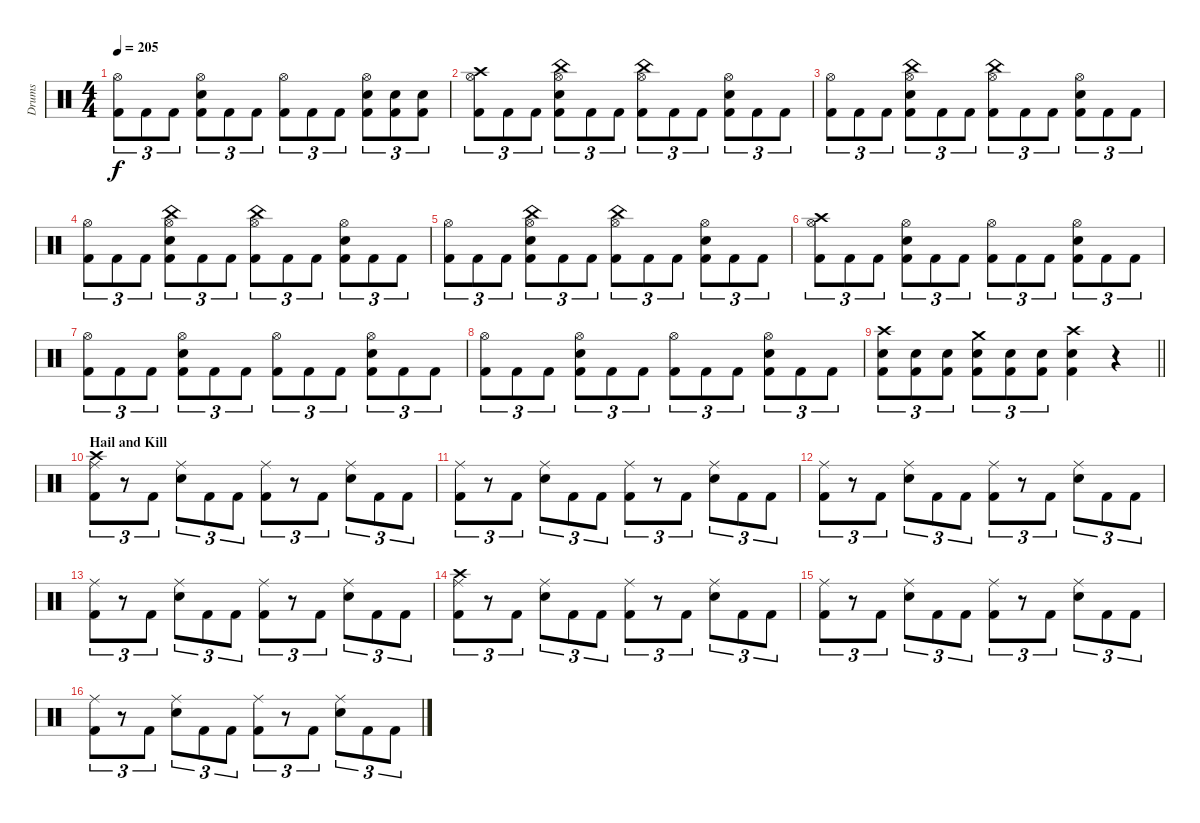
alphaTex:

\track ("Drums" "Drums") {instrument percussion}
\staff {score}
\articulation defaults
\ts (4 4)
\tempo 205
\clef neutral
\ks c
("Hi-Hat (open)" "Kick (hit) 2").8{tu (3 2) dy f} "Kick (hit) 2".8{tu (3 2)} "Kick (hit) 2".8{tu (3 2)} ("Hi-Hat (open)" "Snare (hit) 2" "Kick (hit) 2").8{tu (3 2)} "Kick (hit) 2".8{tu (3 2)} "Kick (hit) 2".8{tu (3 2)} ("Hi-Hat (open)" "Kick (hit) 2").8{tu (3 2)} "Kick (hit) 2".8{tu (3 2)} "Kick (hit) 2".8{tu (3 2)} ("Hi-Hat (open)" "Snare (hit) 2" "Kick (hit) 2").8{tu (3 2)} ("Snare (hit) 2" "Kick (hit) 2").8{tu (3 2)} ("Snare (hit) 2" "Kick (hit) 2").8{tu (3 2)} |
("Crash high (hit)" "Hi-Hat (open)" "Kick (hit) 2").8{tu (3 2)} "Kick (hit) 2".8{tu (3 2)} "Kick (hit) 2".8{tu (3 2)} ("China (hit)" "Hi-Hat (open)" "Snare (hit) 2" "Kick (hit) 2").8{tu (3 2)} "Kick (hit) 2".8{tu (3 2)} "Kick (hit) 2".8{tu (3 2)} ("China (hit)" "Hi-Hat (open)" "Kick (hit) 2").8{tu (3 2)} "Kick (hit) 2".8{tu (3 2)} "Kick (hit) 2".8{tu (3 2)} ("Hi-Hat (open)" "Snare (hit) 2" "Kick (hit) 2").8{tu (3 2)} "Kick (hit) 2".8{tu (3 2)} "Kick (hit) 2".8{tu (3 2)} |
("Hi-Hat (open)" "Kick (hit) 2").8{tu (3 2)} "Kick (hit) 2".8{tu (3 2)} "Kick (hit) 2".8{tu (3 2)} ("China (hit)" "Hi-Hat (open)" "Snare (hit) 2" "Kick (hit) 2").8{tu (3 2)} "Kick (hit) 2".8{tu (3 2)} "Kick (hit) 2".8{tu (3 2)} ("China (hit)" "Hi-Hat (open)" "Kick (hit) 2").8{tu (3 2)} "Kick (hit) 2".8{tu (3 2)} "Kick (hit) 2".8{tu (3 2)} ("Hi-Hat (open)" "Snare (hit) 2" "Kick (hit) 2").8{tu (3 2)} "Kick (hit) 2".8{tu (3 2)} "Kick (hit) 2".8{tu (3 2)} |
("Hi-Hat (open)" "Kick (hit) 2").8{tu (3 2)} "Kick (hit) 2".8{tu (3 2)} "Kick (hit) 2".8{tu (3 2)} ("China (hit)" "Hi-Hat (open)" "Snare (hit) 2" "Kick (hit) 2").8{tu (3 2)} "Kick (hit) 2".8{tu (3 2)} "Kick (hit) 2".8{tu (3 2)} ("China (hit)" "Hi-Hat (open)" "Kick (hit) 2").8{tu (3 2)} "Kick (hit) 2".8{tu (3 2)} "Kick (hit) 2".8{tu (3 2)} ("Hi-Hat (open)" "Snare (hit) 2" "Kick (hit) 2").8{tu (3 2)} "Kick (hit) 2".8{tu (3 2)} "Kick (hit) 2".8{tu (3 2)} |
("Hi-Hat (open)" "Kick (hit) 2").8{tu (3 2)} "Kick (hit) 2".8{tu (3 2)} "Kick (hit) 2".8{tu (3 2)} ("China (hit)" "Hi-Hat (open)" "Snare (hit) 2" "Kick (hit) 2").8{tu (3 2)} "Kick (hit) 2".8{tu (3 2)} "Kick (hit) 2".8{tu (3 2)} ("China (hit)" "Hi-Hat (open)" "Kick (hit) 2").8{tu (3 2)} "Kick (hit) 2".8{tu (3 2)} "Kick (hit) 2".8{tu (3 2)} ("Hi-Hat (open)" "Snare (hit) 2" "Kick (hit) 2").8{tu (3 2)} "Kick (hit) 2".8{tu (3 2)} "Kick (hit) 2".8{tu (3 2)} |
("Crash high (hit)" "Hi-Hat (open)" "Kick (hit) 2").8{tu (3 2)} "Kick (hit) 2".8{tu (3 2)} "Kick (hit) 2".8{tu (3 2)} ("Hi-Hat (open)" "Snare (hit) 2" "Kick (hit) 2").8{tu (3 2)} "Kick (hit) 2".8{tu (3 2)} "Kick (hit) 2".8{tu (3 2)} ("Hi-Hat (open)" "Kick (hit) 2").8{tu (3 2)} "Kick (hit) 2".8{tu (3 2)} "Kick (hit) 2".8{tu (3 2)} ("Hi-Hat (open)" "Snare (hit) 2" "Kick (hit) 2").8{tu (3 2)} "Kick (hit) 2".8{tu (3 2)} "Kick (hit) 2".8{tu (3 2)} |
("Hi-Hat (open)" "Kick (hit) 2").8{tu (3 2)} "Kick (hit) 2".8{tu (3 2)} "Kick (hit) 2".8{tu (3 2)} ("Hi-Hat (open)" "Snare (hit) 2" "Kick (hit) 2").8{tu (3 2)} "Kick (hit) 2".8{tu (3 2)} "Kick (hit) 2".8{tu (3 2)} ("Hi-Hat (open)" "Kick (hit) 2").8{tu (3 2)} "Kick (hit) 2".8{tu (3 2)} "Kick (hit) 2".8{tu (3 2)} ("Hi-Hat (open)" "Snare (hit) 2" "Kick (hit) 2").8{tu (3 2)} "Kick (hit) 2".8{tu (3 2)} "Kick (hit) 2".8{tu (3 2)} |
("Hi-Hat (open)" "Kick (hit) 2").8{tu (3 2)} "Kick (hit) 2".8{tu (3 2)} "Kick (hit) 2".8{tu (3 2)} ("Hi-Hat (open)" "Snare (hit) 2" "Kick (hit) 2").8{tu (3 2)} "Kick (hit) 2".8{tu (3 2)} "Kick (hit) 2".8{tu (3 2)} ("Hi-Hat (open)" "Kick (hit) 2").8{tu (3 2)} "Kick (hit) 2".8{tu (3 2)} "Kick (hit) 2".8{tu (3 2)} ("Hi-Hat (open)" "Snare (hit) 2" "Kick (hit) 2").8{tu (3 2)} "Kick (hit) 2".8{tu (3 2)} "Kick (hit) 2".8{tu (3 2)} |
\barLineRight lightlight
("Crash high (hit)" "Snare (hit) 2" "Kick (hit) 2").8{tu (3 2)} ("Snare (hit) 2" "Kick (hit) 2").8{tu (3 2)} ("Snare (hit) 2" "Kick (hit) 2").8{tu (3 2)} ("Crash medium (hit)" "Snare (hit) 2" "Kick (hit) 2").8{tu (3 2)} ("Snare (hit) 2" "Kick (hit) 2").8{tu (3 2)} ("Snare (hit) 2" "Kick (hit) 2").8{tu (3 2)} ("Crash high (hit)" "Snare (hit) 2" "Kick (hit) 2").4 r.4 |
\section ("" "Hail and Kill")
("Crash high (hit)" "Ride (middle)" "Kick (hit) 2").8{tu (3 2)} r.8{tu (3 2)} "Kick (hit) 2".8{tu (3 2)} ("Ride (middle)" "Snare (hit) 2").8{tu (3 2)} "Kick (hit) 2".8{tu (3 2)} "Kick (hit) 2".8{tu (3 2)} ("Ride (middle)" "Kick (hit) 2").8{tu (3 2)} r.8{tu (3 2)} "Kick (hit) 2".8{tu (3 2)} ("Ride (middle)" "Snare (hit) 2").8{tu (3 2)} "Kick (hit) 2".8{tu (3 2)} "Kick (hit) 2".8{tu (3 2)} |
("Ride (middle)" "Kick (hit) 2").8{tu (3 2)} r.8{tu (3 2)} "Kick (hit) 2".8{tu (3 2)} ("Ride (middle)" "Snare (hit) 2").8{tu (3 2)} "Kick (hit) 2".8{tu (3 2)} "Kick (hit) 2".8{tu (3 2)} ("Ride (middle)" "Kick (hit) 2").8{tu (3 2)} r.8{tu (3 2)} "Kick (hit) 2".8{tu (3 2)} ("Ride (middle)" "Snare (hit) 2").8{tu (3 2)} "Kick (hit) 2".8{tu (3 2)} "Kick (hit) 2".8{tu (3 2)} |
("Ride (middle)" "Kick (hit) 2").8{tu (3 2)} r.8{tu (3 2)} "Kick (hit) 2".8{tu (3 2)} ("Ride (middle)" "Snare (hit) 2").8{tu (3 2)} "Kick (hit) 2".8{tu (3 2)} "Kick (hit) 2".8{tu (3 2)} ("Ride (middle)" "Kick (hit) 2").8{tu (3 2)} r.8{tu (3 2)} "Kick (hit) 2".8{tu (3 2)} ("Ride (middle)" "Snare (hit) 2").8{tu (3 2)} "Kick (hit) 2".8{tu (3 2)} "Kick (hit) 2".8{tu (3 2)} |
("Ride (middle)" "Kick (hit) 2").8{tu (3 2)} r.8{tu (3 2)} "Kick (hit) 2".8{tu (3 2)} ("Ride (middle)" "Snare (hit) 2").8{tu (3 2)} "Kick (hit) 2".8{tu (3 2)} "Kick (hit) 2".8{tu (3 2)} ("Ride (middle)" "Kick (hit) 2").8{tu (3 2)} r.8{tu (3 2)} "Kick (hit) 2".8{tu (3 2)} ("Ride (middle)" "Snare (hit) 2").8{tu (3 2)} "Kick (hit) 2".8{tu (3 2)} "Kick (hit) 2".8{tu (3 2)} |
("Crash high (hit)" "Ride (middle)" "Kick (hit) 2").8{tu (3 2)} r.8{tu (3 2)} "Kick (hit) 2".8{tu (3 2)} ("Ride (middle)" "Snare (hit) 2").8{tu (3 2)} "Kick (hit) 2".8{tu (3 2)} "Kick (hit) 2".8{tu (3 2)} ("Ride (middle)" "Kick (hit) 2").8{tu (3 2)} r.8{tu (3 2)} "Kick (hit) 2".8{tu (3 2)} ("Ride (middle)" "Snare (hit) 2").8{tu (3 2)} "Kick (hit) 2".8{tu (3 2)} "Kick (hit) 2".8{tu (3 2)} |
("Ride (middle)" "Kick (hit) 2").8{tu (3 2)} r.8{tu (3 2)} "Kick (hit) 2".8{tu (3 2)} ("Ride (middle)" "Snare (hit) 2").8{tu (3 2)} "Kick (hit) 2".8{tu (3 2)} "Kick (hit) 2".8{tu (3 2)} ("Ride (middle)" "Kick (hit) 2").8{tu (3 2)} r.8{tu (3 2)} "Kick (hit) 2".8{tu (3 2)} ("Ride (middle)" "Snare (hit) 2").8{tu (3 2)} "Kick (hit) 2".8{tu (3 2)} "Kick (hit) 2".8{tu (3 2)} |
("Ride (middle)" "Kick (hit) 2").8{tu (3 2)} r.8{tu (3 2)} "Kick (hit) 2".8{tu (3 2)} ("Ride (middle)" "Snare (hit) 2").8{tu (3 2)} "Kick (hit) 2".8{tu (3 2)} "Kick (hit) 2".8{tu (3 2)} ("Ride (middle)" "Kick (hit) 2").8{tu (3 2)} r.8{tu (3 2)} "Kick (hit) 2".8{tu (3 2)} ("Ride (middle)" "Snare (hit) 2").8{tu (3 2)} "Kick (hit) 2".8{tu (3 2)} "Kick (hit) 2".8{tu (3 2)}
